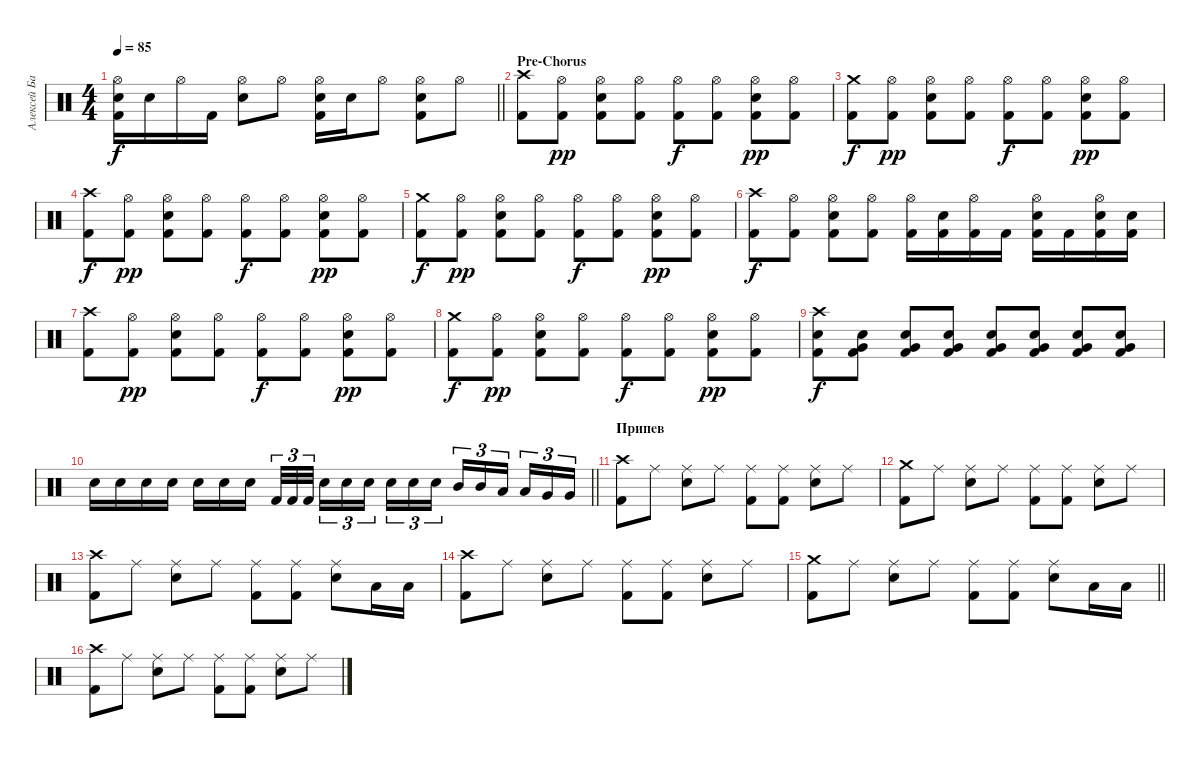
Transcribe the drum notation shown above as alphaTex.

\track ("Алексей Барзилович" "Алексей Ба") {instrument percussion}
\staff {score}
\articulation defaults
\ts (4 4)
\tempo 85
\clef neutral
\barLineRight lightlight
\ks c
("Hi-Hat (open)" "Electric Snare (hit)" "Kick (hit) 2").16{dy f} "Electric Snare (hit)".16 "Hi-Hat (open)".16 "Kick (hit) 2".16 ("Hi-Hat (open)" "Electric Snare (hit)").8 "Hi-Hat (open)".8 ("Hi-Hat (open)" "Electric Snare (hit)" "Kick (hit) 2").16 "Electric Snare (hit)".16 "Hi-Hat (open)".8 ("Hi-Hat (open)" "Electric Snare (hit)" "Kick (hit) 2").8 "Hi-Hat (open)".8 |
\section ("" "Pre-Chorus")
("Crash high (hit)" "Kick (hit) 2").8 ("Hi-Hat (open)" "Kick (hit) 2").8{dy pp} ("Hi-Hat (open)" "Electric Snare (hit)" "Kick (hit) 2").8 ("Hi-Hat (open)" "Kick (hit) 2").8 ("Hi-Hat (open)" "Kick (hit) 2").8{dy f} ("Hi-Hat (open)" "Kick (hit) 2").8 ("Hi-Hat (open)" "Electric Snare (hit)" "Kick (hit) 2").8{dy pp} ("Hi-Hat (open)" "Kick (hit) 2").8 |
("Crash medium (hit)" "Kick (hit) 2").8{dy f} ("Hi-Hat (open)" "Kick (hit) 2").8{dy pp} ("Hi-Hat (open)" "Electric Snare (hit)" "Kick (hit) 2").8 ("Hi-Hat (open)" "Kick (hit) 2").8 ("Hi-Hat (open)" "Kick (hit) 2").8{dy f} ("Hi-Hat (open)" "Kick (hit) 2").8 ("Hi-Hat (open)" "Electric Snare (hit)" "Kick (hit) 2").8{dy pp} ("Hi-Hat (open)" "Kick (hit) 2").8 |
("Crash high (hit)" "Kick (hit) 2").8{dy f} ("Hi-Hat (open)" "Kick (hit) 2").8{dy pp} ("Hi-Hat (open)" "Electric Snare (hit)" "Kick (hit) 2").8 ("Hi-Hat (open)" "Kick (hit) 2").8 ("Hi-Hat (open)" "Kick (hit) 2").8{dy f} ("Hi-Hat (open)" "Kick (hit) 2").8 ("Hi-Hat (open)" "Electric Snare (hit)" "Kick (hit) 2").8{dy pp} ("Hi-Hat (open)" "Kick (hit) 2").8 |
("Crash medium (hit)" "Kick (hit) 2").8{dy f} ("Hi-Hat (open)" "Kick (hit) 2").8{dy pp} ("Hi-Hat (open)" "Electric Snare (hit)" "Kick (hit) 2").8 ("Hi-Hat (open)" "Kick (hit) 2").8 ("Hi-Hat (open)" "Kick (hit) 2").8{dy f} ("Hi-Hat (open)" "Kick (hit) 2").8 ("Hi-Hat (open)" "Electric Snare (hit)" "Kick (hit) 2").8{dy pp} ("Hi-Hat (open)" "Kick (hit) 2").8 |
("Crash high (hit)" "Kick (hit) 2").8{dy f} ("Hi-Hat (open)" "Kick (hit) 2").8 ("Hi-Hat (open)" "Electric Snare (hit)" "Kick (hit) 2").8 ("Hi-Hat (open)" "Kick (hit) 2").8 ("Hi-Hat (open)" "Kick (hit) 2").16 ("Electric Snare (hit)" "Kick (hit) 2").16 ("Hi-Hat (open)" "Kick (hit) 2").16 "Kick (hit) 2".16 ("Hi-Hat (open)" "Electric Snare (hit)" "Kick (hit) 2").16 "Kick (hit) 2".16 ("Hi-Hat (open)" "Electric Snare (hit)" "Kick (hit) 2").16 ("Electric Snare (hit)" "Kick (hit) 2").16 |
("Crash high (hit)" "Kick (hit) 2").8 ("Hi-Hat (open)" "Kick (hit) 2").8{dy pp} ("Hi-Hat (open)" "Electric Snare (hit)" "Kick (hit) 2").8 ("Hi-Hat (open)" "Kick (hit) 2").8 ("Hi-Hat (open)" "Kick (hit) 2").8{dy f} ("Hi-Hat (open)" "Kick (hit) 2").8 ("Hi-Hat (open)" "Electric Snare (hit)" "Kick (hit) 2").8{dy pp} ("Hi-Hat (open)" "Kick (hit) 2").8 |
("Crash medium (hit)" "Kick (hit) 2").8{dy f} ("Hi-Hat (open)" "Kick (hit) 2").8{dy pp} ("Hi-Hat (open)" "Electric Snare (hit)" "Kick (hit) 2").8 ("Hi-Hat (open)" "Kick (hit) 2").8 ("Hi-Hat (open)" "Kick (hit) 2").8{dy f} ("Hi-Hat (open)" "Kick (hit) 2").8 ("Hi-Hat (open)" "Electric Snare (hit)" "Kick (hit) 2").8{dy pp} ("Hi-Hat (open)" "Kick (hit) 2").8 |
("Crash high (hit)" "Electric Snare (hit)" "Kick (hit) 2").8{dy f} ("Very Low Tom (hit)" "Electric Snare (hit)" "Kick (hit) 2").8 ("Very Low Tom (hit)" "Electric Snare (hit)" "Kick (hit) 2").8 ("Very Low Tom (hit)" "Electric Snare (hit)" "Kick (hit) 2").8 ("Very Low Tom (hit)" "Electric Snare (hit)" "Kick (hit) 2").8 ("Very Low Tom (hit)" "Electric Snare (hit)" "Kick (hit) 2").8 ("Very Low Tom (hit)" "Electric Snare (hit)" "Kick (hit) 2").8 ("Very Low Tom (hit)" "Electric Snare (hit)" "Kick (hit) 2").8 |
\barLineRight lightlight "Electric Snare (hit)".16 "Electric Snare (hit)".16 "Electric Snare (hit)".16 "Electric Snare (hit)".16 "Electric Snare (hit)".16 "Electric Snare (hit)".16 "Electric Snare (hit)".16 "Kick (hit) 2".32{tu (3 2)} "Kick (hit) 2".32{tu (3 2)} "Kick (hit) 2".32{tu (3 2)} "Electric Snare (hit)".16{tu (3 2)} "Electric Snare (hit)".16{tu (3 2)} "Electric Snare (hit)".16{tu (3 2)} "Electric Snare (hit)".16{tu (3 2)} "Electric Snare (hit)".16{tu (3 2)} "Electric Snare (hit)".16{tu (3 2)} "Mid Tom (hit)".16{tu (3 2)} "Mid Tom (hit)".16{tu (3 2)} "Low Tom (hit)".16{tu (3 2)} "Low Tom (hit)".16{tu (3 2)} "Very Low Tom (hit)".16{tu (3 2)} "Very Low Tom (hit)".16{tu (3 2)}
|
\section ("" "Припев")
("Crash high (hit)" "Kick (hit) 2").8 "Ride (middle)".8 ("Ride (middle)" "Electric Snare (hit)").8 "Ride (middle)".8 ("Ride (middle)" "Kick (hit) 2").8 ("Ride (middle)" "Kick (hit) 2").8 ("Ride (middle)" "Electric Snare (hit)").8 "Ride (middle)".8 |
("Crash medium (hit)" "Kick (hit) 2").8 "Ride (middle)".8 ("Ride (middle)" "Electric Snare (hit)").8 "Ride (middle)".8 ("Ride (middle)" "Kick (hit) 2").8 ("Ride (middle)" "Kick (hit) 2").8 ("Ride (middle)" "Electric Snare (hit)").8 "Ride (middle)".8 |
("Crash high (hit)" "Kick (hit) 2").8 "Ride (middle)".8 ("Ride (middle)" "Electric Snare (hit)").8 "Ride (middle)".8 ("Ride (middle)" "Kick (hit) 2").8 ("Ride (middle)" "Kick (hit) 2").8 ("Ride (middle)" "Electric Snare (hit)").8 "Low Tom (hit)".16 "Low Tom (hit)".16 |
("Crash high (hit)" "Kick (hit) 2").8 "Ride (middle)".8 ("Ride (middle)" "Electric Snare (hit)").8 "Ride (middle)".8 ("Ride (middle)" "Kick (hit) 2").8 ("Ride (middle)" "Kick (hit) 2").8 ("Ride (middle)" "Electric Snare (hit)").8 "Ride (middle)".8 |
\barLineRight lightlight
("Crash medium (hit)" "Kick (hit) 2").8 "Ride (middle)".8 ("Ride (middle)" "Electric Snare (hit)").8 "Ride (middle)".8 ("Ride (middle)" "Kick (hit) 2").8 ("Ride (middle)" "Kick (hit) 2").8 ("Ride (middle)" "Electric Snare (hit)").8 "Low Tom (hit)".16 "Low Tom (hit)".16 |
("Crash high (hit)" "Kick (hit) 2").8 "Ride (middle)".8 ("Ride (middle)" "Electric Snare (hit)").8 "Ride (middle)".8 ("Ride (middle)" "Kick (hit) 2").8 ("Ride (middle)" "Kick (hit) 2").8 ("Ride (middle)" "Electric Snare (hit)").8 "Ride (middle)".8
